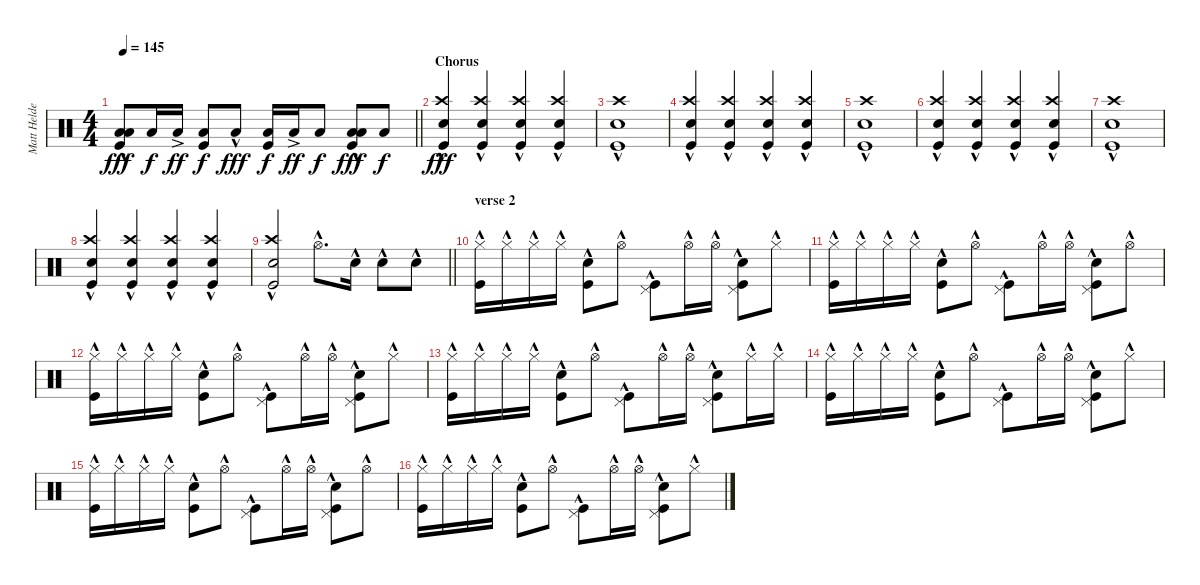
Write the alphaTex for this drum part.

\track ("Matt Helders - Drums" "Matt Helde") {instrument percussion}
\staff {score}
\articulation defaults
\ts (4 4)
\tempo 145
\clef neutral
\barLineRight lightlight
\ks c
("Low Tom (hit)"{hac} "Low Floor Tom (hit)"{hac} "Kick (hit)").8{dy fff} "Low Floor Tom (hit)".16{dy f} "Low Tom (hit)"{ac}.16{dy ff} ("Low Floor Tom (hit)" "Kick (hit)").8{dy f} "Low Floor Tom (hit)"{hac}.8{dy fff} ("Low Floor Tom (hit)" "Kick (hit)").16{dy f} "Low Tom (hit)"{ac}.16{dy ff} "Low Floor Tom (hit)".8{dy f} ("Low Tom (hit)"{hac} "Low Floor Tom (hit)"{hac} "Kick (hit)").8{dy fff} "Low Floor Tom (hit)".8{dy f} |
\section ("" "Chorus")
("Crash high (hit)"{hac} "Snare (hit) 2"{hac} "Kick (hit)"{hac}).4{dy fff} ("Crash high (hit)"{hac} "Snare (hit) 2"{hac} "Kick (hit)"{hac}).4 ("Crash high (hit)"{hac} "Snare (hit) 2"{hac} "Kick (hit)"{hac}).4 ("Crash high (hit)"{hac} "Snare (hit) 2"{hac} "Kick (hit)"{hac}).4 |
("Crash high (hit)"{hac} "Snare (hit) 2"{hac} "Kick (hit)"{hac}).1 |
("Crash high (hit)"{hac} "Snare (hit) 2"{hac} "Kick (hit)"{hac}).4 ("Crash high (hit)"{hac} "Snare (hit) 2"{hac} "Kick (hit)"{hac}).4 ("Crash high (hit)"{hac} "Snare (hit) 2"{hac} "Kick (hit)"{hac}).4 ("Crash high (hit)"{hac} "Snare (hit) 2"{hac} "Kick (hit)"{hac}).4 |
("Crash high (hit)"{hac} "Snare (hit) 2"{hac} "Kick (hit)"{hac}).1 |
("Crash high (hit)"{hac} "Snare (hit) 2"{hac} "Kick (hit)"{hac}).4 ("Crash high (hit)"{hac} "Snare (hit) 2"{hac} "Kick (hit)"{hac}).4 ("Crash high (hit)"{hac} "Snare (hit) 2"{hac} "Kick (hit)"{hac}).4 ("Crash high (hit)"{hac} "Snare (hit) 2"{hac} "Kick (hit)"{hac}).4 |
("Crash high (hit)"{hac} "Snare (hit) 2"{hac} "Kick (hit)"{hac}).1 |
("Crash high (hit)"{hac} "Snare (hit) 2"{hac} "Kick (hit)"{hac}).4 ("Crash high (hit)"{hac} "Snare (hit) 2"{hac} "Kick (hit)"{hac}).4 ("Crash high (hit)"{hac} "Snare (hit) 2"{hac} "Kick (hit)"{hac}).4 ("Crash high (hit)"{hac} "Snare (hit) 2"{hac} "Kick (hit)"{hac}).4 |
\barLineRight lightlight
("Crash high (hit)"{hac} "Snare (hit) 2"{hac} "Kick (hit)"{hac}).2 "Hi-Hat (open)"{hac}.8{d} "Snare (hit) 2"{hac}.16 "Snare (hit) 2"{hac}.8 "Snare (hit) 2"{hac}.8 |
\section ("" "verse 2")
("Hi-Hat (closed)"{hac} "Kick (hit)"{hac}).16 "Hi-Hat (closed)"{hac}.16 "Hi-Hat (closed)"{hac}.16 "Hi-Hat (closed)"{hac}.16 ("Snare (hit) 2"{hac} "Kick (hit)"{hac}).8 "Hi-Hat (open)"{hac}.8 ("Pedal Hi-Hat (hit)"{hac} "Kick (hit)"{hac}).8 "Hi-Hat (open)"{hac}.16 "Hi-Hat (open)"{hac}.16 ("Pedal Hi-Hat (hit)"{hac} "Snare (hit) 2"{hac} "Kick (hit)"{hac}).8 "Hi-Hat (closed)"{hac}.8 |
("Hi-Hat (closed)"{hac} "Kick (hit)"{hac}).16 "Hi-Hat (closed)"{hac}.16 "Hi-Hat (closed)"{hac}.16 "Hi-Hat (closed)"{hac}.16 ("Snare (hit) 2"{hac} "Kick (hit)"{hac}).8 "Hi-Hat (open)"{hac}.8 ("Pedal Hi-Hat (hit)"{hac} "Kick (hit)"{hac}).8 "Hi-Hat (open)"{hac}.16 "Hi-Hat (open)"{hac}.16 ("Pedal Hi-Hat (hit)"{hac} "Snare (hit) 2"{hac} "Kick (hit)"{hac}).8 "Hi-Hat (open)"{hac}.8 |
("Hi-Hat (closed)"{hac} "Kick (hit)"{hac}).16 "Hi-Hat (closed)"{hac}.16 "Hi-Hat (closed)"{hac}.16 "Hi-Hat (closed)"{hac}.16 ("Snare (hit) 2"{hac} "Kick (hit)"{hac}).8 "Hi-Hat (open)"{hac}.8 ("Pedal Hi-Hat (hit)"{hac} "Kick (hit)"{hac}).8 "Hi-Hat (open)"{hac}.16 "Hi-Hat (open)"{hac}.16 ("Pedal Hi-Hat (hit)"{hac} "Snare (hit) 2"{hac} "Kick (hit)"{hac}).8 "Hi-Hat (closed)"{hac}.8 |
("Hi-Hat (closed)"{hac} "Kick (hit)"{hac}).16 "Hi-Hat (closed)"{hac}.16 "Hi-Hat (closed)"{hac}.16 "Hi-Hat (closed)"{hac}.16 ("Snare (hit) 2"{hac} "Kick (hit)"{hac}).8 "Hi-Hat (open)"{hac}.8 ("Pedal Hi-Hat (hit)"{hac} "Kick (hit)"{hac}).8 "Hi-Hat (open)"{hac}.16 "Hi-Hat (open)"{hac}.16 ("Pedal Hi-Hat (hit)"{hac} "Snare (hit) 2"{hac} "Kick (hit)"{hac}).8 "Hi-Hat (closed)"{hac}.16 "Hi-Hat (closed)"{hac}.16 |
("Hi-Hat (closed)"{hac} "Kick (hit)"{hac}).16 "Hi-Hat (closed)"{hac}.16 "Hi-Hat (closed)"{hac}.16 "Hi-Hat (closed)"{hac}.16 ("Snare (hit) 2"{hac} "Kick (hit)"{hac}).8 "Hi-Hat (open)"{hac}.8 ("Pedal Hi-Hat (hit)"{hac} "Kick (hit)"{hac}).8 "Hi-Hat (open)"{hac}.16 "Hi-Hat (open)"{hac}.16 ("Pedal Hi-Hat (hit)"{hac} "Snare (hit) 2"{hac} "Kick (hit)"{hac}).8 "Hi-Hat (closed)"{hac}.8 |
("Hi-Hat (closed)"{hac} "Kick (hit)"{hac}).16 "Hi-Hat (closed)"{hac}.16 "Hi-Hat (closed)"{hac}.16 "Hi-Hat (closed)"{hac}.16 ("Snare (hit) 2"{hac} "Kick (hit)"{hac}).8 "Hi-Hat (open)"{hac}.8 ("Pedal Hi-Hat (hit)"{hac} "Kick (hit)"{hac}).8 "Hi-Hat (open)"{hac}.16 "Hi-Hat (open)"{hac}.16 ("Pedal Hi-Hat (hit)"{hac} "Snare (hit) 2"{hac} "Kick (hit)"{hac}).8 "Hi-Hat (open)"{hac}.8 |
("Hi-Hat (closed)"{hac} "Kick (hit)"{hac}).16 "Hi-Hat (closed)"{hac}.16 "Hi-Hat (closed)"{hac}.16 "Hi-Hat (closed)"{hac}.16 ("Snare (hit) 2"{hac} "Kick (hit)"{hac}).8 "Hi-Hat (open)"{hac}.8 ("Pedal Hi-Hat (hit)"{hac} "Kick (hit)"{hac}).8 "Hi-Hat (open)"{hac}.16 "Hi-Hat (open)"{hac}.16 ("Pedal Hi-Hat (hit)"{hac} "Snare (hit) 2"{hac} "Kick (hit)"{hac}).8 "Hi-Hat (closed)"{hac}.8
